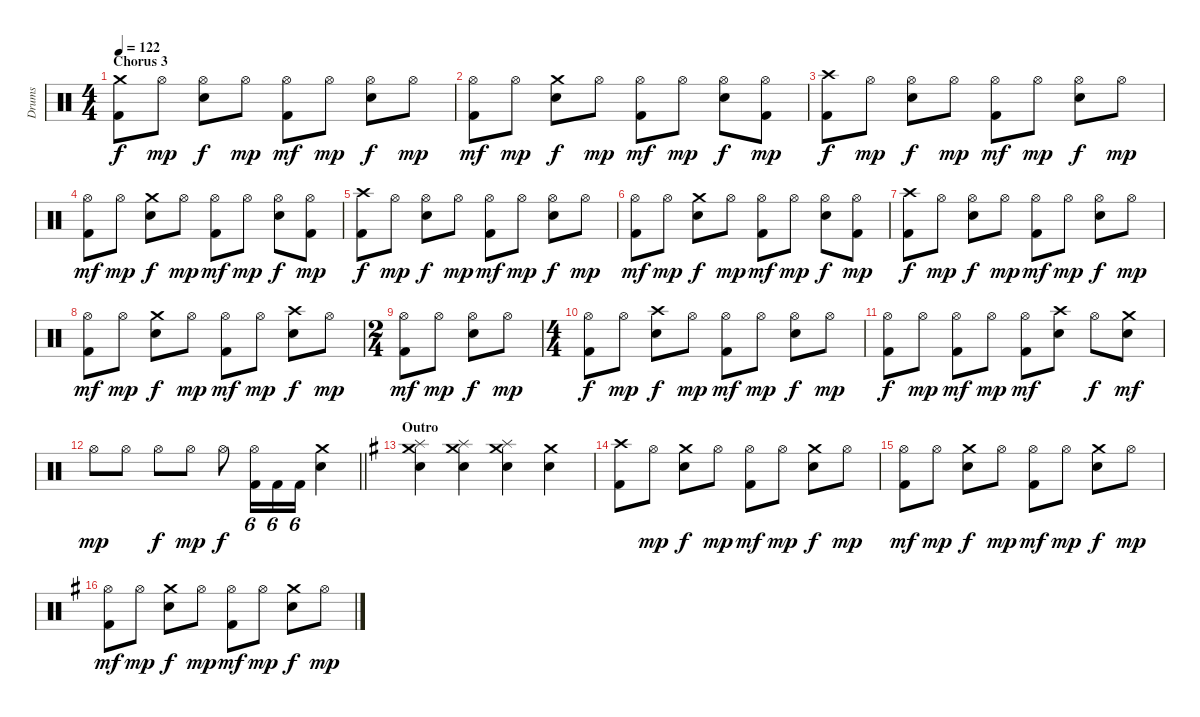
\track ("Drums" "Drums") {instrument percussion}
\staff {score}
\articulation defaults
\ts (4 4)
\section ("" "Chorus 3")
\tempo 122
\clef neutral
\ks c
("Crash medium (hit)" "Kick (hit) 2").8{dy f} "Hi-Hat (open)".8{dy mp} ("Hi-Hat (open)" "Electric Snare (hit)").8{dy f} "Hi-Hat (open)".8{dy mp} ("Hi-Hat (open)" "Kick (hit) 2").8{dy mf} "Hi-Hat (open)".8{dy mp} ("Hi-Hat (open)" "Electric Snare (hit)").8{dy f} "Hi-Hat (open)".8{dy mp} |
("Hi-Hat (open)" "Kick (hit) 2").8{dy mf} "Hi-Hat (open)".8{dy mp} ("Crash medium (hit)" "Electric Snare (hit)").8{dy f} "Hi-Hat (open)".8{dy mp} ("Hi-Hat (open)" "Kick (hit) 2").8{dy mf} "Hi-Hat (open)".8{dy mp} ("Hi-Hat (open)" "Electric Snare (hit)").8{dy f} ("Hi-Hat (open)" "Kick (hit) 2").8{dy mp} |
("Crash high (hit)" "Kick (hit) 2").8{dy f} "Hi-Hat (open)".8{dy mp} ("Hi-Hat (open)" "Electric Snare (hit)").8{dy f} "Hi-Hat (open)".8{dy mp} ("Hi-Hat (open)" "Kick (hit) 2").8{dy mf} "Hi-Hat (open)".8{dy mp} ("Hi-Hat (open)" "Electric Snare (hit)").8{dy f} "Hi-Hat (open)".8{dy mp} |
("Hi-Hat (open)" "Kick (hit) 2").8{dy mf} "Hi-Hat (open)".8{dy mp} ("Crash medium (hit)" "Electric Snare (hit)").8{dy f} "Hi-Hat (open)".8{dy mp} ("Hi-Hat (open)" "Kick (hit) 2").8{dy mf} "Hi-Hat (open)".8{dy mp} ("Hi-Hat (open)" "Electric Snare (hit)").8{dy f} ("Hi-Hat (open)" "Kick (hit) 2").8{dy mp} |
("Crash high (hit)" "Kick (hit) 2").8{dy f} "Hi-Hat (open)".8{dy mp} ("Hi-Hat (open)" "Electric Snare (hit)").8{dy f} "Hi-Hat (open)".8{dy mp} ("Hi-Hat (open)" "Kick (hit) 2").8{dy mf} "Hi-Hat (open)".8{dy mp} ("Hi-Hat (open)" "Electric Snare (hit)").8{dy f} "Hi-Hat (open)".8{dy mp} |
("Hi-Hat (open)" "Kick (hit) 2").8{dy mf} "Hi-Hat (open)".8{dy mp} ("Crash medium (hit)" "Electric Snare (hit)").8{dy f} "Hi-Hat (open)".8{dy mp} ("Hi-Hat (open)" "Kick (hit) 2").8{dy mf} "Hi-Hat (open)".8{dy mp} ("Hi-Hat (open)" "Electric Snare (hit)").8{dy f} ("Hi-Hat (open)" "Kick (hit) 2").8{dy mp} |
("Crash high (hit)" "Kick (hit) 2").8{dy f} "Hi-Hat (open)".8{dy mp} ("Hi-Hat (open)" "Electric Snare (hit)").8{dy f} "Hi-Hat (open)".8{dy mp} ("Hi-Hat (open)" "Kick (hit) 2").8{dy mf} "Hi-Hat (open)".8{dy mp} ("Hi-Hat (open)" "Electric Snare (hit)").8{dy f} "Hi-Hat (open)".8{dy mp} |
("Hi-Hat (open)" "Kick (hit) 2").8{dy mf} "Hi-Hat (open)".8{dy mp} ("Crash medium (hit)" "Electric Snare (hit)").8{dy f} "Hi-Hat (open)".8{dy mp} ("Hi-Hat (open)" "Kick (hit) 2").8{dy mf} "Hi-Hat (open)".8{dy mp} ("Crash high (hit)" "Electric Snare (hit)").8{dy f} "Hi-Hat (open)".8{dy mp} |
\ts (2 4)
("Hi-Hat (open)" "Kick (hit) 2").8{dy mf} "Hi-Hat (open)".8{dy mp} ("Hi-Hat (open)" "Electric Snare (hit)").8{dy f} "Hi-Hat (open)".8{dy mp} |
\ts (4 4)
("Hi-Hat (open)" "Kick (hit) 2").8{dy f} "Hi-Hat (open)".8{dy mp} ("Crash high (hit)" "Electric Snare (hit)").8{dy f} "Hi-Hat (open)".8{dy mp} ("Hi-Hat (open)" "Kick (hit) 2").8{dy mf} "Hi-Hat (open)".8{dy mp} ("Hi-Hat (open)" "Electric Snare (hit)").8{dy f} "Hi-Hat (open)".8{dy mp} |
("Hi-Hat (open)" "Kick (hit) 2").8{dy f} "Hi-Hat (open)".8{dy mp} ("Hi-Hat (open)" "Kick (hit) 2").8{dy mf} "Hi-Hat (open)".8{dy mp} ("Hi-Hat (open)" "Kick (hit) 2").8{dy mf} ("Crash high (hit)" "Electric Snare (hit)").8 "Hi-Hat (open)".8{dy f} ("Crash medium (hit)" "Electric Snare (hit)").8{dy mf} |
\barLineRight lightlight "Hi-Hat (open)".8{dy mp} "Hi-Hat (open)".8 "Hi-Hat (open)".8{dy f} "Hi-Hat (open)".8{dy mp} "Hi-Hat (open)".8{dy f}
("Hi-Hat (open)" "Kick (hit) 2").16{tu (6 4)} "Kick (hit) 2".16{tu (6 4)} "Kick (hit) 2".16{tu (6 4)} ("Crash medium (hit)" "Electric Snare (hit)").4 |
\section ("" "Outro")
\ks g
("Crash medium (hit)" "Splash (hit)" "Electric Snare (hit)").4 ("Crash medium (hit)" "Splash (hit)" "Electric Snare (hit)").4 ("Crash medium (hit)" "Splash (hit)" "Electric Snare (hit)").4 ("Crash medium (hit)" "Electric Snare (hit)").4 |
("Crash high (hit)" "Kick (hit) 2").8 "Hi-Hat (open)".8{dy mp} ("Crash medium (hit)" "Electric Snare (hit)").8{dy f} "Hi-Hat (open)".8{dy mp} ("Hi-Hat (open)" "Kick (hit) 2").8{dy mf} "Hi-Hat (open)".8{dy mp} ("Crash medium (hit)" "Electric Snare (hit)").8{dy f} "Hi-Hat (open)".8{dy mp} |
("Hi-Hat (open)" "Kick (hit) 2").8{dy mf} "Hi-Hat (open)".8{dy mp} ("Crash medium (hit)" "Electric Snare (hit)").8{dy f} "Hi-Hat (open)".8{dy mp} ("Hi-Hat (open)" "Kick (hit) 2").8{dy mf} "Hi-Hat (open)".8{dy mp} ("Crash medium (hit)" "Electric Snare (hit)").8{dy f} "Hi-Hat (open)".8{dy mp} |
("Hi-Hat (open)" "Kick (hit) 2").8{dy mf} "Hi-Hat (open)".8{dy mp} ("Crash medium (hit)" "Electric Snare (hit)").8{dy f} "Hi-Hat (open)".8{dy mp} ("Hi-Hat (open)" "Kick (hit) 2").8{dy mf} "Hi-Hat (open)".8{dy mp} ("Crash medium (hit)" "Electric Snare (hit)").8{dy f} "Hi-Hat (open)".8{dy mp}
